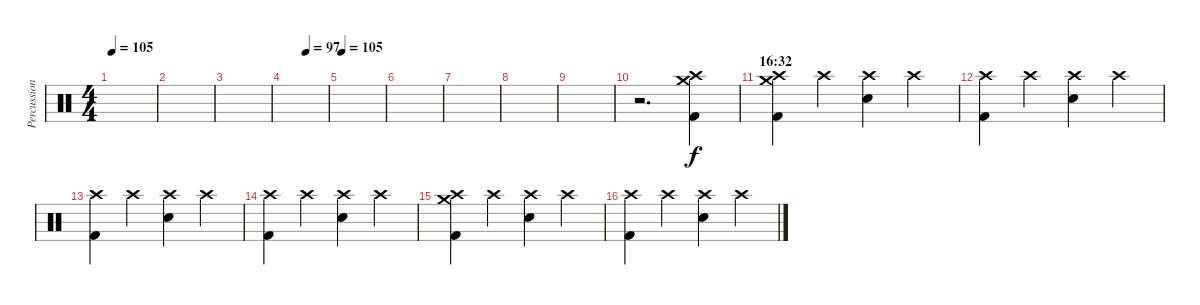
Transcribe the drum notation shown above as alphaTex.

\track ("Percussion" "Percussion") {instrument percussion}
\staff {score}
\articulation defaults
\ts (4 4)
\tempo 105
\clef neutral
\ks c
|
|
|
\tempo (97 0.5)
|
\tempo 105
|
|
|
|
|
r.2{d volume 13 balance 8} ("Crash high (hit)" "Kick (hit) 2" "Crash medium (hit)").4 |
\section ("" "16:32")
("Crash medium (hit)" "Crash high (hit)" "Kick (hit) 2").4 "Crash high (hit)".4 ("Crash high (hit)" "Electric Snare (hit)").4 "Crash high (hit)".4 |
("Crash high (hit)" "Kick (hit) 2").4 "Crash high (hit)".4 ("Crash high (hit)" "Electric Snare (hit)").4 "Crash high (hit)".4 |
("Crash high (hit)" "Kick (hit) 2").4 "Crash high (hit)".4 ("Crash high (hit)" "Electric Snare (hit)").4 "Crash high (hit)".4 |
("Crash high (hit)" "Kick (hit) 2").4 "Crash high (hit)".4 ("Crash high (hit)" "Electric Snare (hit)").4 "Crash high (hit)".4 |
("Crash medium (hit)" "Crash high (hit)" "Kick (hit) 2").4 "Crash high (hit)".4 ("Crash high (hit)" "Electric Snare (hit)").4 "Crash high (hit)".4 |
("Crash high (hit)" "Kick (hit) 2").4 "Crash high (hit)".4 ("Crash high (hit)" "Electric Snare (hit)").4 "Crash high (hit)".4
